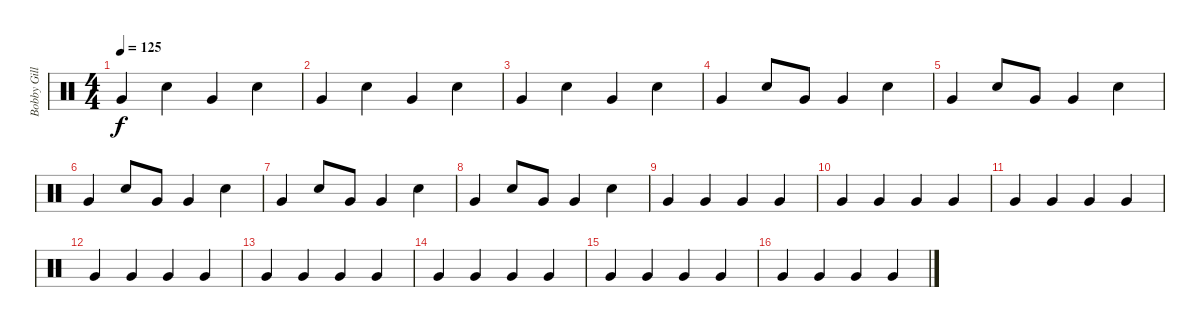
\track ("Bobby Gillespie" "Bobby Gill") {instrument percussion}
\staff {score}
\articulation defaults
\ts (4 4)
\tempo 125
\clef neutral
\ks c "Very Low Tom (hit)".4{dy f} "Electric Snare (hit)".4 "Very Low Tom (hit)".4 "Electric Snare (hit)".4
|
"Very Low Tom (hit)".4 "Electric Snare (hit)".4 "Very Low Tom (hit)".4 "Electric Snare (hit)".4 |
"Very Low Tom (hit)".4 "Electric Snare (hit)".4 "Very Low Tom (hit)".4 "Electric Snare (hit)".4 |
"Very Low Tom (hit)".4 "Electric Snare (hit)".8 "Very Low Tom (hit)".8 "Very Low Tom (hit)".4 "Electric Snare (hit)".4 |
"Very Low Tom (hit)".4 "Electric Snare (hit)".8 "Very Low Tom (hit)".8 "Very Low Tom (hit)".4 "Electric Snare (hit)".4 |
"Very Low Tom (hit)".4 "Electric Snare (hit)".8 "Very Low Tom (hit)".8 "Very Low Tom (hit)".4 "Electric Snare (hit)".4 |
"Very Low Tom (hit)".4 "Electric Snare (hit)".8 "Very Low Tom (hit)".8 "Very Low Tom (hit)".4 "Electric Snare (hit)".4 |
"Very Low Tom (hit)".4 "Electric Snare (hit)".8 "Very Low Tom (hit)".8 "Very Low Tom (hit)".4 "Electric Snare (hit)".4 |
"Very Low Tom (hit)".4 "Very Low Tom (hit)".4 "Very Low Tom (hit)".4 "Very Low Tom (hit)".4 |
"Very Low Tom (hit)".4 "Very Low Tom (hit)".4 "Very Low Tom (hit)".4 "Very Low Tom (hit)".4 |
"Very Low Tom (hit)".4 "Very Low Tom (hit)".4 "Very Low Tom (hit)".4 "Very Low Tom (hit)".4 |
"Very Low Tom (hit)".4 "Very Low Tom (hit)".4 "Very Low Tom (hit)".4 "Very Low Tom (hit)".4 |
"Very Low Tom (hit)".4 "Very Low Tom (hit)".4 "Very Low Tom (hit)".4 "Very Low Tom (hit)".4 |
"Very Low Tom (hit)".4 "Very Low Tom (hit)".4 "Very Low Tom (hit)".4 "Very Low Tom (hit)".4 |
"Very Low Tom (hit)".4 "Very Low Tom (hit)".4 "Very Low Tom (hit)".4 "Very Low Tom (hit)".4 |
"Very Low Tom (hit)".4 "Very Low Tom (hit)".4 "Very Low Tom (hit)".4 "Very Low Tom (hit)".4
